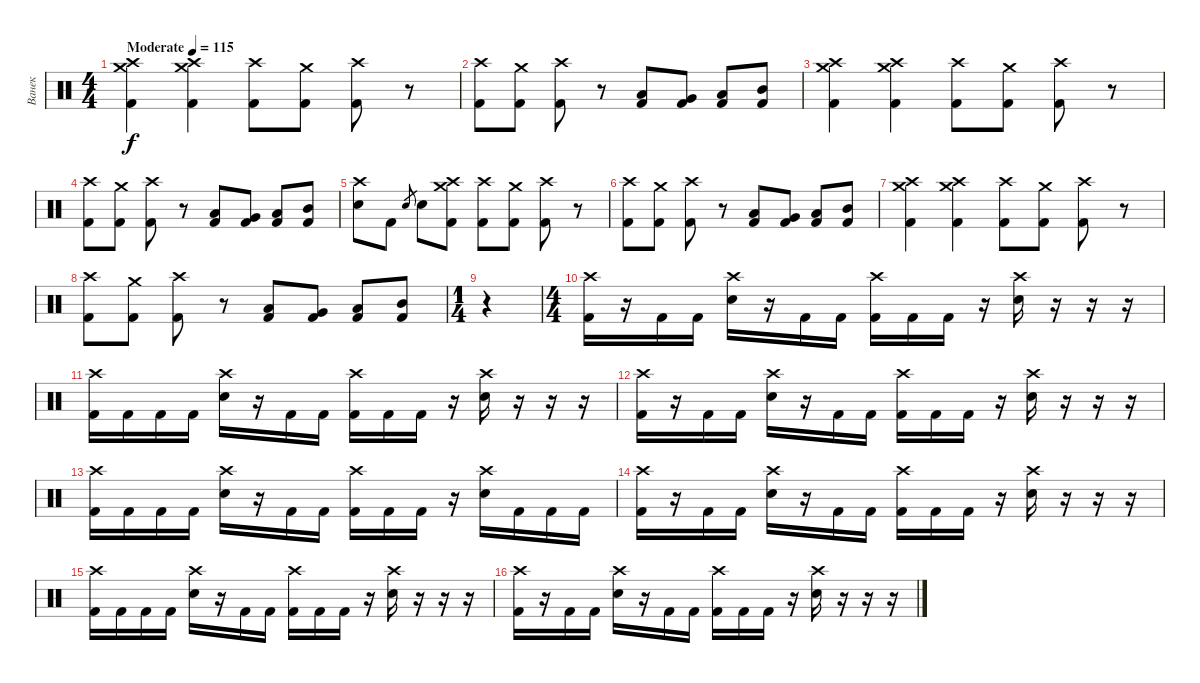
\track ("Ванек" "Ванек") {instrument percussion}
\staff {score}
\articulation defaults
\ts (4 4)
\tempo (115 "Moderate")
\clef neutral
\ks c
("Crash high (hit)" "Crash medium (hit)" "Kick (hit) 2").4{dy f} ("Crash high (hit)" "Crash medium (hit)" "Kick (hit) 2").4 ("Crash high (hit)" "Kick (hit) 2").8 ("Crash medium (hit)" "Kick (hit) 2").8 ("Crash high (hit)" "Kick (hit) 2").8 r.8 |
("Crash high (hit)" "Kick (hit) 2").8 ("Crash medium (hit)" "Kick (hit) 2").8 ("Crash high (hit)" "Kick (hit) 2").8 r.8 ("Low Floor Tom (hit)" "Kick (hit) 2").8 ("Very Low Tom (hit)" "Kick (hit) 2").8 ("Low Tom (hit)" "Kick (hit) 2").8 ("Mid Tom (hit)" "Kick (hit) 2").8 |
("Crash high (hit)" "Crash medium (hit)" "Kick (hit) 2").4 ("Crash high (hit)" "Crash medium (hit)" "Kick (hit) 2").4 ("Crash high (hit)" "Kick (hit) 2").8 ("Crash medium (hit)" "Kick (hit) 2").8 ("Crash high (hit)" "Kick (hit) 2").8 r.8 |
("Crash high (hit)" "Kick (hit) 2").8 ("Crash medium (hit)" "Kick (hit) 2").8 ("Crash high (hit)" "Kick (hit) 2").8 r.8 ("Low Floor Tom (hit)" "Kick (hit) 2").8 ("Very Low Tom (hit)" "Kick (hit) 2").8 ("Low Tom (hit)" "Kick (hit) 2").8 ("Mid Tom (hit)" "Kick (hit) 2").8 |
("Crash high (hit)" "Snare (hit) 2").8 "Kick (hit) 2".8 "Snare (hit) 2".8{gr} "Snare (hit) 2".8 ("Crash high (hit)" "Crash medium (hit)" "Kick (hit) 2").8 ("Crash high (hit)" "Kick (hit) 2").8 ("Crash medium (hit)" "Kick (hit) 2").8 ("Crash high (hit)" "Kick (hit) 2").8 r.8 |
("Crash high (hit)" "Kick (hit) 2").8 ("Crash medium (hit)" "Kick (hit) 2").8 ("Crash high (hit)" "Kick (hit) 2").8 r.8 ("Low Floor Tom (hit)" "Kick (hit) 2").8 ("Very Low Tom (hit)" "Kick (hit) 2").8 ("Low Tom (hit)" "Kick (hit) 2").8 ("Mid Tom (hit)" "Kick (hit) 2").8 |
("Crash high (hit)" "Crash medium (hit)" "Kick (hit) 2").4 ("Crash high (hit)" "Crash medium (hit)" "Kick (hit) 2").4 ("Crash high (hit)" "Kick (hit) 2").8 ("Crash medium (hit)" "Kick (hit) 2").8 ("Crash high (hit)" "Kick (hit) 2").8 r.8 |
("Crash high (hit)" "Kick (hit) 2").8 ("Crash medium (hit)" "Kick (hit) 2").8 ("Crash high (hit)" "Kick (hit) 2").8 r.8 ("Low Floor Tom (hit)" "Kick (hit) 2").8 ("Very Low Tom (hit)" "Kick (hit) 2").8 ("Low Tom (hit)" "Kick (hit) 2").8 ("Mid Tom (hit)" "Kick (hit) 2").8 |
\ts (1 4)
r.4 |
\ts (4 4)
("Crash high (hit)" "Kick (hit) 2").16 r.16 "Kick (hit) 2".16 "Kick (hit) 2".16 ("Crash high (hit)" "Snare (hit) 2").16 r.16 "Kick (hit) 2".16 "Kick (hit) 2".16 ("Crash high (hit)" "Kick (hit) 2").16 "Kick (hit) 2".16 "Kick (hit) 2".16 r.16 ("Crash high (hit)" "Snare (hit) 2").16 r.16 r.16 r.16 |
("Crash high (hit)" "Kick (hit) 2").16 "Kick (hit) 2".16 "Kick (hit) 2".16 "Kick (hit) 2".16 ("Crash high (hit)" "Snare (hit) 2").16 r.16 "Kick (hit) 2".16 "Kick (hit) 2".16 ("Crash high (hit)" "Kick (hit) 2").16 "Kick (hit) 2".16 "Kick (hit) 2".16 r.16 ("Crash high (hit)" "Snare (hit) 2").16 r.16 r.16 r.16 |
("Crash high (hit)" "Kick (hit) 2").16 r.16 "Kick (hit) 2".16 "Kick (hit) 2".16 ("Crash high (hit)" "Snare (hit) 2").16 r.16 "Kick (hit) 2".16 "Kick (hit) 2".16 ("Crash high (hit)" "Kick (hit) 2").16 "Kick (hit) 2".16 "Kick (hit) 2".16 r.16 ("Crash high (hit)" "Snare (hit) 2").16 r.16 r.16 r.16 |
("Crash high (hit)" "Kick (hit) 2").16 "Kick (hit) 2".16 "Kick (hit) 2".16 "Kick (hit) 2".16 ("Crash high (hit)" "Snare (hit) 2").16 r.16 "Kick (hit) 2".16 "Kick (hit) 2".16 ("Crash high (hit)" "Kick (hit) 2").16 "Kick (hit) 2".16 "Kick (hit) 2".16 r.16 ("Crash high (hit)" "Snare (hit) 2").16 "Kick (hit) 2".16 "Kick (hit) 2".16 "Kick (hit) 2".16 |
("Crash high (hit)" "Kick (hit) 2").16 r.16 "Kick (hit) 2".16 "Kick (hit) 2".16 ("Crash high (hit)" "Snare (hit) 2").16 r.16 "Kick (hit) 2".16 "Kick (hit) 2".16 ("Crash high (hit)" "Kick (hit) 2").16 "Kick (hit) 2".16 "Kick (hit) 2".16 r.16 ("Crash high (hit)" "Snare (hit) 2").16 r.16 r.16 r.16 |
("Crash high (hit)" "Kick (hit) 2").16 "Kick (hit) 2".16 "Kick (hit) 2".16 "Kick (hit) 2".16 ("Crash high (hit)" "Snare (hit) 2").16 r.16 "Kick (hit) 2".16 "Kick (hit) 2".16 ("Crash high (hit)" "Kick (hit) 2").16 "Kick (hit) 2".16 "Kick (hit) 2".16 r.16 ("Crash high (hit)" "Snare (hit) 2").16 r.16 r.16 r.16 |
("Crash high (hit)" "Kick (hit) 2").16 r.16 "Kick (hit) 2".16 "Kick (hit) 2".16 ("Crash high (hit)" "Snare (hit) 2").16 r.16 "Kick (hit) 2".16 "Kick (hit) 2".16 ("Crash high (hit)" "Kick (hit) 2").16 "Kick (hit) 2".16 "Kick (hit) 2".16 r.16 ("Crash high (hit)" "Snare (hit) 2").16 r.16 r.16 r.16
